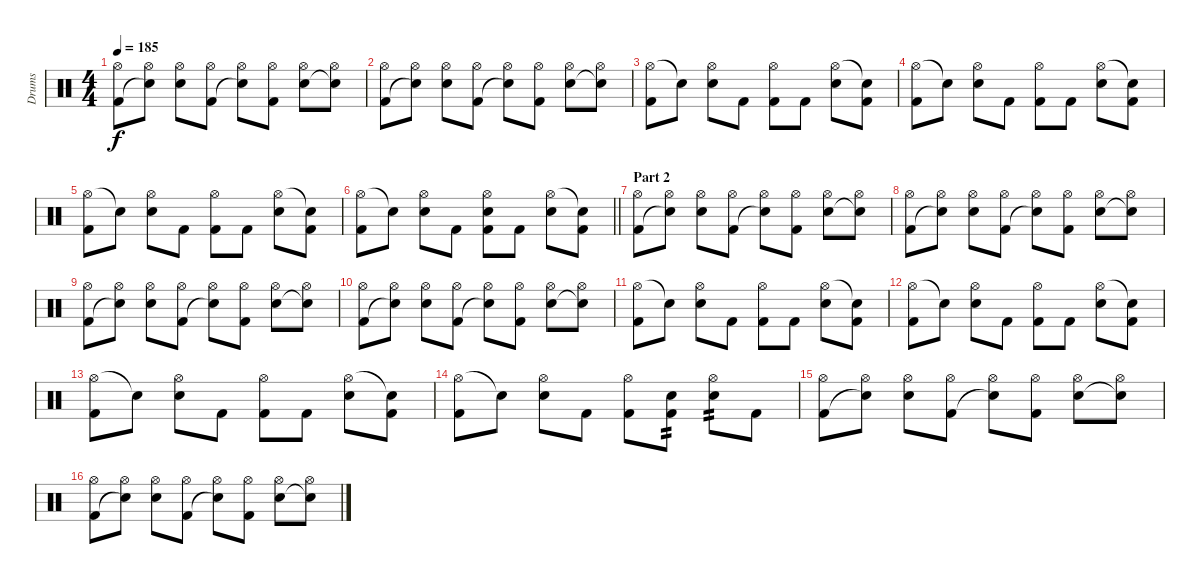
\track ("Drums" "Drums") {instrument percussion}
\staff {score}
\articulation defaults
\ts (4 4)
\tempo 185
\clef neutral
\ks c
("Hi-Hat (open)" "Kick (hit) 2").8{dy f} ("Hi-Hat (open)" "Snare (hit)"{t}).8 ("Hi-Hat (open)" "Electric Snare (hit)").8 ("Hi-Hat (open)" "Kick (hit) 2").8 ("Hi-Hat (open)" "Snare (hit)"{t}).8 ("Hi-Hat (open)" "Kick (hit) 2").8 ("Hi-Hat (open)" "Electric Snare (hit)").8 ("Hi-Hat (open)" "Snare (hit)"{t}).8 |
("Hi-Hat (open)" "Kick (hit) 2").8 ("Hi-Hat (open)" "Snare (hit)"{t}).8 ("Hi-Hat (open)" "Electric Snare (hit)").8 ("Hi-Hat (open)" "Kick (hit) 2").8 ("Hi-Hat (open)" "Snare (hit)"{t}).8 ("Hi-Hat (open)" "Kick (hit) 2").8 ("Hi-Hat (open)" "Electric Snare (hit)").8 ("Hi-Hat (open)" "Snare (hit)"{t}).8 |
("Hi-Hat (open)" "Kick (hit) 2").8 "Snare (hit)"{t}.8 ("Hi-Hat (open)" "Electric Snare (hit)").8 "Kick (hit) 2".8 ("Hi-Hat (open)" "Kick (hit) 2").8 "Kick (hit) 2".8 ("Hi-Hat (open)" "Electric Snare (hit)").8 ("Snare (hit)"{t} "Kick (hit) 2").8 |
("Hi-Hat (open)" "Kick (hit) 2").8 "Snare (hit)"{t}.8 ("Hi-Hat (open)" "Electric Snare (hit)").8 "Kick (hit) 2".8 ("Hi-Hat (open)" "Kick (hit) 2").8 "Kick (hit) 2".8 ("Hi-Hat (open)" "Electric Snare (hit)").8 ("Snare (hit)"{t} "Kick (hit) 2").8 |
("Hi-Hat (open)" "Kick (hit) 2").8 "Snare (hit)"{t}.8 ("Hi-Hat (open)" "Electric Snare (hit)").8 "Kick (hit) 2".8 ("Hi-Hat (open)" "Kick (hit) 2").8 "Kick (hit) 2".8 ("Hi-Hat (open)" "Electric Snare (hit)").8 ("Snare (hit)"{t} "Kick (hit) 2").8 |
\barLineRight lightlight
("Hi-Hat (open)" "Kick (hit) 2").8 "Snare (hit)"{t}.8 ("Hi-Hat (open)" "Electric Snare (hit)").8 "Kick (hit) 2".8 ("Hi-Hat (open)" "Electric Snare (hit)" "Kick (hit) 2").8 "Kick (hit) 2".8 ("Hi-Hat (open)" "Electric Snare (hit)").8 ("Snare (hit)"{t} "Kick (hit) 2").8 |
\section ("" "Part 2")
("Hi-Hat (open)" "Kick (hit) 2").8 ("Hi-Hat (open)" "Snare (hit)"{t}).8 ("Hi-Hat (open)" "Electric Snare (hit)").8 ("Hi-Hat (open)" "Kick (hit) 2").8 ("Hi-Hat (open)" "Snare (hit)"{t}).8 ("Hi-Hat (open)" "Kick (hit) 2").8 ("Hi-Hat (open)" "Electric Snare (hit)").8 ("Hi-Hat (open)" "Snare (hit)"{t}).8 |
("Hi-Hat (open)" "Kick (hit) 2").8 ("Hi-Hat (open)" "Snare (hit)"{t}).8 ("Hi-Hat (open)" "Electric Snare (hit)").8 ("Hi-Hat (open)" "Kick (hit) 2").8 ("Hi-Hat (open)" "Snare (hit)"{t}).8 ("Hi-Hat (open)" "Kick (hit) 2").8 ("Hi-Hat (open)" "Electric Snare (hit)").8 ("Hi-Hat (open)" "Snare (hit)"{t}).8 |
("Hi-Hat (open)" "Kick (hit) 2").8 ("Hi-Hat (open)" "Snare (hit)"{t}).8 ("Hi-Hat (open)" "Electric Snare (hit)").8 ("Hi-Hat (open)" "Kick (hit) 2").8 ("Hi-Hat (open)" "Snare (hit)"{t}).8 ("Hi-Hat (open)" "Kick (hit) 2").8 ("Hi-Hat (open)" "Electric Snare (hit)").8 ("Hi-Hat (open)" "Snare (hit)"{t}).8 |
("Hi-Hat (open)" "Kick (hit) 2").8 ("Hi-Hat (open)" "Snare (hit)"{t}).8 ("Hi-Hat (open)" "Electric Snare (hit)").8 ("Hi-Hat (open)" "Kick (hit) 2").8 ("Hi-Hat (open)" "Snare (hit)"{t}).8 ("Hi-Hat (open)" "Kick (hit) 2").8 ("Hi-Hat (open)" "Electric Snare (hit)").8 ("Hi-Hat (open)" "Snare (hit)"{t}).8 |
("Hi-Hat (open)" "Kick (hit) 2").8 "Snare (hit)"{t}.8 ("Hi-Hat (open)" "Electric Snare (hit)").8 "Kick (hit) 2".8 ("Hi-Hat (open)" "Kick (hit) 2").8 "Kick (hit) 2".8 ("Hi-Hat (open)" "Electric Snare (hit)").8 ("Snare (hit)"{t} "Kick (hit) 2").8 |
("Hi-Hat (open)" "Kick (hit) 2").8 "Snare (hit)"{t}.8 ("Hi-Hat (open)" "Electric Snare (hit)").8 "Kick (hit) 2".8 ("Hi-Hat (open)" "Kick (hit) 2").8 "Kick (hit) 2".8 ("Hi-Hat (open)" "Electric Snare (hit)").8 ("Snare (hit)"{t} "Kick (hit) 2").8 |
("Hi-Hat (open)" "Kick (hit) 2").8 "Snare (hit)"{t}.8 ("Hi-Hat (open)" "Electric Snare (hit)").8 "Kick (hit) 2".8 ("Hi-Hat (open)" "Kick (hit) 2").8 "Kick (hit) 2".8 ("Hi-Hat (open)" "Electric Snare (hit)").8 ("Snare (hit)"{t} "Kick (hit) 2").8 |
("Hi-Hat (open)" "Kick (hit) 2").8 "Snare (hit)"{t}.8 ("Hi-Hat (open)" "Electric Snare (hit)").8 "Kick (hit) 2".8 ("Hi-Hat (open)" "Kick (hit) 2").8 ("Electric Snare (hit)" "Kick (hit) 2").8{tp 2} ("Hi-Hat (open)" "Electric Snare (hit)").8{tp 2} "Kick (hit) 2".8 |
("Hi-Hat (open)" "Kick (hit) 2").8 ("Hi-Hat (open)" "Snare (hit)"{t}).8 ("Hi-Hat (open)" "Electric Snare (hit)").8 ("Hi-Hat (open)" "Kick (hit) 2").8 ("Hi-Hat (open)" "Snare (hit)"{t}).8 ("Hi-Hat (open)" "Kick (hit) 2").8 ("Hi-Hat (open)" "Electric Snare (hit)").8 ("Hi-Hat (open)" "Snare (hit)"{t}).8 |
("Hi-Hat (open)" "Kick (hit) 2").8 ("Hi-Hat (open)" "Snare (hit)"{t}).8 ("Hi-Hat (open)" "Electric Snare (hit)").8 ("Hi-Hat (open)" "Kick (hit) 2").8 ("Hi-Hat (open)" "Snare (hit)"{t}).8 ("Hi-Hat (open)" "Kick (hit) 2").8 ("Hi-Hat (open)" "Electric Snare (hit)").8 ("Hi-Hat (open)" "Snare (hit)"{t}).8
